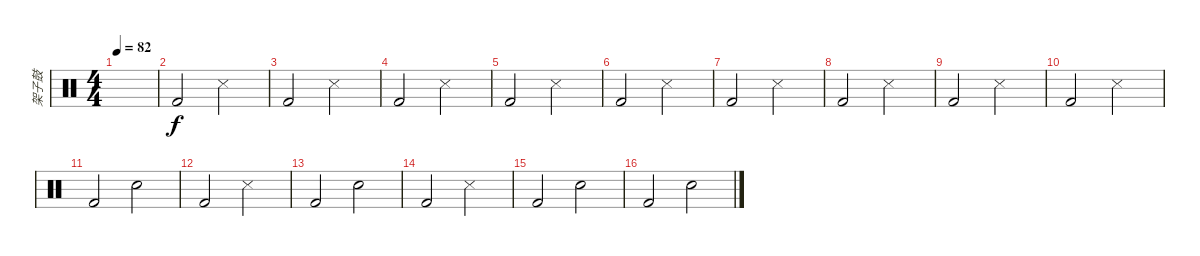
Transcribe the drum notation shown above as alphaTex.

\track ("架子鼓" "架子鼓") {instrument percussion}
\staff {score}
\articulation defaults
\ts (4 4)
\tempo 82
\clef neutral
\ks c
|
"Kick (hit) 2".2 "Snare (side stick) 3".2 |
"Kick (hit) 2".2 "Snare (side stick) 3".2 |
"Kick (hit) 2".2 "Snare (side stick) 3".2 |
"Kick (hit) 2".2 "Snare (side stick) 3".2 |
"Kick (hit) 2".2 "Snare (side stick) 3".2 |
"Kick (hit) 2".2 "Snare (side stick) 3".2 |
"Kick (hit) 2".2 "Snare (side stick) 3".2 |
"Kick (hit) 2".2 "Snare (side stick) 3".2 |
"Kick (hit) 2".2 "Snare (side stick) 3".2 |
"Kick (hit) 2".2 "Electric Snare (hit)".2 |
"Kick (hit) 2".2 "Snare (side stick) 3".2 |
"Kick (hit) 2".2 "Electric Snare (hit)".2 |
"Kick (hit) 2".2 "Snare (side stick) 3".2 |
"Kick (hit) 2".2 "Electric Snare (hit)".2 |
"Kick (hit) 2".2 "Electric Snare (hit)".2
